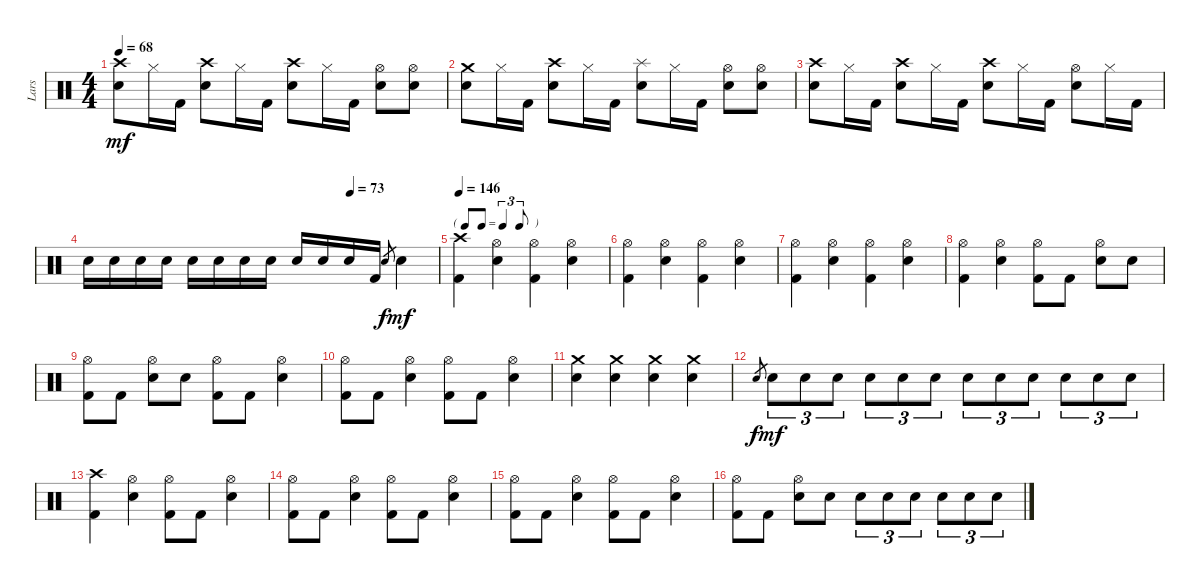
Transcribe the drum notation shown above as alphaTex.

\track ("Lars" "Lars") {instrument percussion}
\staff {score}
\articulation defaults
\ts (4 4)
\tempo 68
\clef neutral
\ks c
("Crash high (hit)" "Electric Snare (hit)").8{dy mf} "Hi-Hat (closed)".16 "Kick (hit) 2".16 ("Crash high (hit)" "Electric Snare (hit)").8 "Hi-Hat (closed)".16 "Kick (hit) 2".16 ("Crash high (hit)" "Electric Snare (hit)").8 "Hi-Hat (closed)".16 "Kick (hit) 2".16 ("Hi-Hat (open)" "Electric Snare (hit)").8 ("Hi-Hat (open)" "Electric Snare (hit)").8 |
("Crash medium (hit)" "Electric Snare (hit)").8 "Hi-Hat (closed)".16 "Kick (hit) 2".16 ("Crash high (hit)" "Electric Snare (hit)").8 "Hi-Hat (closed)".16 "Kick (hit) 2".16 ("Splash (hit)" "Electric Snare (hit)").8 "Hi-Hat (closed)".16 "Kick (hit) 2".16 ("Hi-Hat (open)" "Electric Snare (hit)").8 ("Hi-Hat (open)" "Electric Snare (hit)").8 |
("Crash high (hit)" "Electric Snare (hit)").8 "Hi-Hat (closed)".16 "Kick (hit) 2".16 ("Crash high (hit)" "Electric Snare (hit)").8 "Hi-Hat (closed)".16 "Kick (hit) 2".16 ("Crash high (hit)" "Electric Snare (hit)").8 "Hi-Hat (closed)".16 "Kick (hit) 2".16 ("Hi-Hat (open)" "Electric Snare (hit)").8 "Hi-Hat (closed)".16 "Kick (hit) 2".16 |
\tempo (73 0.75)
"Electric Snare (hit)".16 "Electric Snare (hit)".16 "Electric Snare (hit)".16 "Electric Snare (hit)".16 "Electric Snare (hit)".16 "Electric Snare (hit)".16 "Electric Snare (hit)".16 "Electric Snare (hit)".16 "Electric Snare (hit)".16 "Electric Snare (hit)".16 "Electric Snare (hit)".16 "Kick (hit) 2".16 "Electric Snare (hit)".8{gr dy f} "Electric Snare (hit)".4{dy mf} |
\tf triplet8th
\tempo 146
("Crash high (hit)" "Kick (hit) 2").4 ("Hi-Hat (open)" "Electric Snare (hit)").4 ("Hi-Hat (open)" "Kick (hit) 2").4 ("Hi-Hat (open)" "Electric Snare (hit)").4 |
("Hi-Hat (open)" "Kick (hit) 2").4 ("Hi-Hat (open)" "Electric Snare (hit)").4 ("Hi-Hat (open)" "Kick (hit) 2").4 ("Hi-Hat (open)" "Electric Snare (hit)").4 |
("Hi-Hat (open)" "Kick (hit) 2").4 ("Hi-Hat (open)" "Electric Snare (hit)").4 ("Hi-Hat (open)" "Kick (hit) 2").4 ("Hi-Hat (open)" "Electric Snare (hit)").4 |
("Hi-Hat (open)" "Kick (hit) 2").4 ("Hi-Hat (open)" "Electric Snare (hit)").4 ("Hi-Hat (open)" "Kick (hit) 2").8 "Kick (hit) 2".8 ("Hi-Hat (open)" "Electric Snare (hit)").8 "Electric Snare (hit)".8 |
("Hi-Hat (open)" "Kick (hit) 2").8 "Kick (hit) 2".8 ("Hi-Hat (open)" "Electric Snare (hit)").8 "Electric Snare (hit)".8 ("Hi-Hat (open)" "Kick (hit) 2").8 "Kick (hit) 2".8 ("Hi-Hat (open)" "Electric Snare (hit)").4 |
("Hi-Hat (open)" "Kick (hit) 2").8 "Kick (hit) 2".8 ("Hi-Hat (open)" "Electric Snare (hit)").4 ("Hi-Hat (open)" "Kick (hit) 2").8 "Kick (hit) 2".8 ("Hi-Hat (open)" "Electric Snare (hit)").4 |
("Crash medium (hit)" "Electric Snare (hit)").4 ("Crash medium (hit)" "Electric Snare (hit)").4 ("Crash medium (hit)" "Electric Snare (hit)").4 ("Crash medium (hit)" "Electric Snare (hit)").4 |
"Electric Snare (hit)".8{gr dy f} "Electric Snare (hit)".8{tu (3 2) dy mf} "Electric Snare (hit)".8{tu (3 2)} "Electric Snare (hit)".8{tu (3 2)} "Electric Snare (hit)".8{tu (3 2)} "Electric Snare (hit)".8{tu (3 2)} "Electric Snare (hit)".8{tu (3 2)} "Electric Snare (hit)".8{tu (3 2)} "Electric Snare (hit)".8{tu (3 2)} "Electric Snare (hit)".8{tu (3 2)} "Electric Snare (hit)".8{tu (3 2)} "Electric Snare (hit)".8{tu (3 2)} "Electric Snare (hit)".8{tu (3 2)} |
("Crash high (hit)" "Kick (hit) 2").4 ("Hi-Hat (open)" "Electric Snare (hit)").4 ("Hi-Hat (open)" "Kick (hit) 2").8 "Kick (hit) 2".8 ("Hi-Hat (open)" "Electric Snare (hit)").4 |
("Hi-Hat (open)" "Kick (hit) 2").8 "Kick (hit) 2".8 ("Hi-Hat (open)" "Electric Snare (hit)").4 ("Hi-Hat (open)" "Kick (hit) 2").8 "Kick (hit) 2".8 ("Hi-Hat (open)" "Electric Snare (hit)").4 |
("Hi-Hat (open)" "Kick (hit) 2").8 "Kick (hit) 2".8 ("Hi-Hat (open)" "Electric Snare (hit)").4 ("Hi-Hat (open)" "Kick (hit) 2").8 "Kick (hit) 2".8 ("Hi-Hat (open)" "Electric Snare (hit)").4 |
("Hi-Hat (open)" "Kick (hit) 2").8 "Kick (hit) 2".8 ("Hi-Hat (open)" "Electric Snare (hit)").8 "Electric Snare (hit)".8 "Electric Snare (hit)".8{tu (3 2)} "Electric Snare (hit)".8{tu (3 2)} "Electric Snare (hit)".8{tu (3 2)} "Electric Snare (hit)".8{tu (3 2)} "Electric Snare (hit)".8{tu (3 2)} "Electric Snare (hit)".8{tu (3 2)}
